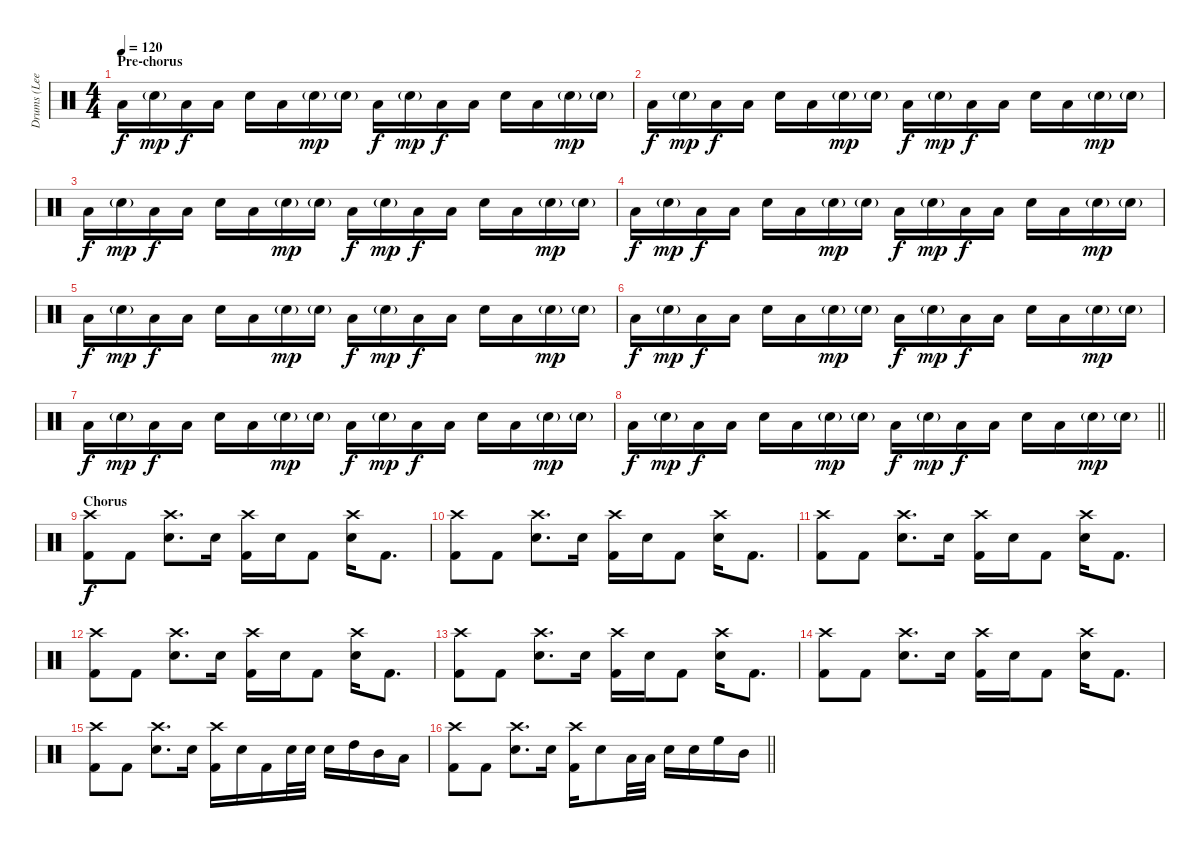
\track ("Drums (Lee)" "Drums (Lee") {instrument percussion}
\staff {score}
\articulation defaults
\ts (4 4)
\section ("" "Pre-chorus")
\tempo 120
\clef neutral
\ks c "Low Floor Tom (hit)".16{dy f} "Snare (hit) 2"{g}.16{dy mp} "Low Floor Tom (hit)".16{dy f} "Low Floor Tom (hit)".16 "Electric Snare (hit)".16 "Low Floor Tom (hit)".16 "Snare (hit) 2"{g}.16{dy mp} "Snare (hit) 2"{g}.16 "Low Floor Tom (hit)".16{dy f} "Snare (hit) 2"{g}.16{dy mp} "Low Floor Tom (hit)".16{dy f} "Low Floor Tom (hit)".16 "Electric Snare (hit)".16 "Low Floor Tom (hit)".16 "Snare (hit) 2"{g}.16{dy mp} "Snare (hit) 2"{g}.16
|
"Low Floor Tom (hit)".16{dy f} "Snare (hit) 2"{g}.16{dy mp} "Low Floor Tom (hit)".16{dy f} "Low Floor Tom (hit)".16 "Electric Snare (hit)".16 "Low Floor Tom (hit)".16 "Snare (hit) 2"{g}.16{dy mp} "Snare (hit) 2"{g}.16 "Low Floor Tom (hit)".16{dy f} "Snare (hit) 2"{g}.16{dy mp} "Low Floor Tom (hit)".16{dy f} "Low Floor Tom (hit)".16 "Electric Snare (hit)".16 "Low Floor Tom (hit)".16 "Snare (hit) 2"{g}.16{dy mp} "Snare (hit) 2"{g}.16 |
"Low Floor Tom (hit)".16{dy f} "Snare (hit) 2"{g}.16{dy mp} "Low Floor Tom (hit)".16{dy f} "Low Floor Tom (hit)".16 "Electric Snare (hit)".16 "Low Floor Tom (hit)".16 "Snare (hit) 2"{g}.16{dy mp} "Snare (hit) 2"{g}.16 "Low Floor Tom (hit)".16{dy f} "Snare (hit) 2"{g}.16{dy mp} "Low Floor Tom (hit)".16{dy f} "Low Floor Tom (hit)".16 "Electric Snare (hit)".16 "Low Floor Tom (hit)".16 "Snare (hit) 2"{g}.16{dy mp} "Snare (hit) 2"{g}.16 |
"Low Floor Tom (hit)".16{dy f} "Snare (hit) 2"{g}.16{dy mp} "Low Floor Tom (hit)".16{dy f} "Low Floor Tom (hit)".16 "Electric Snare (hit)".16 "Low Floor Tom (hit)".16 "Snare (hit) 2"{g}.16{dy mp} "Snare (hit) 2"{g}.16 "Low Floor Tom (hit)".16{dy f} "Snare (hit) 2"{g}.16{dy mp} "Low Floor Tom (hit)".16{dy f} "Low Floor Tom (hit)".16 "Electric Snare (hit)".16 "Low Floor Tom (hit)".16 "Snare (hit) 2"{g}.16{dy mp} "Snare (hit) 2"{g}.16 |
"Low Floor Tom (hit)".16{dy f} "Snare (hit) 2"{g}.16{dy mp} "Low Floor Tom (hit)".16{dy f} "Low Floor Tom (hit)".16 "Electric Snare (hit)".16 "Low Floor Tom (hit)".16 "Snare (hit) 2"{g}.16{dy mp} "Snare (hit) 2"{g}.16 "Low Floor Tom (hit)".16{dy f} "Snare (hit) 2"{g}.16{dy mp} "Low Floor Tom (hit)".16{dy f} "Low Floor Tom (hit)".16 "Electric Snare (hit)".16 "Low Floor Tom (hit)".16 "Snare (hit) 2"{g}.16{dy mp} "Snare (hit) 2"{g}.16 |
"Low Floor Tom (hit)".16{dy f} "Snare (hit) 2"{g}.16{dy mp} "Low Floor Tom (hit)".16{dy f} "Low Floor Tom (hit)".16 "Electric Snare (hit)".16 "Low Floor Tom (hit)".16 "Snare (hit) 2"{g}.16{dy mp} "Snare (hit) 2"{g}.16 "Low Floor Tom (hit)".16{dy f} "Snare (hit) 2"{g}.16{dy mp} "Low Floor Tom (hit)".16{dy f} "Low Floor Tom (hit)".16 "Electric Snare (hit)".16 "Low Floor Tom (hit)".16 "Snare (hit) 2"{g}.16{dy mp} "Snare (hit) 2"{g}.16 |
"Low Floor Tom (hit)".16{dy f} "Snare (hit) 2"{g}.16{dy mp} "Low Floor Tom (hit)".16{dy f} "Low Floor Tom (hit)".16 "Electric Snare (hit)".16 "Low Floor Tom (hit)".16 "Snare (hit) 2"{g}.16{dy mp} "Snare (hit) 2"{g}.16 "Low Floor Tom (hit)".16{dy f} "Snare (hit) 2"{g}.16{dy mp} "Low Floor Tom (hit)".16{dy f} "Low Floor Tom (hit)".16 "Electric Snare (hit)".16 "Low Floor Tom (hit)".16 "Snare (hit) 2"{g}.16{dy mp} "Snare (hit) 2"{g}.16 |
\barLineRight lightlight "Low Floor Tom (hit)".16{dy f} "Snare (hit) 2"{g}.16{dy mp} "Low Floor Tom (hit)".16{dy f} "Low Floor Tom (hit)".16 "Electric Snare (hit)".16 "Low Floor Tom (hit)".16 "Snare (hit) 2"{g}.16{dy mp} "Snare (hit) 2"{g}.16 "Low Floor Tom (hit)".16{dy f} "Snare (hit) 2"{g}.16{dy mp} "Low Floor Tom (hit)".16{dy f} "Low Floor Tom (hit)".16 "Electric Snare (hit)".16 "Low Floor Tom (hit)".16 "Snare (hit) 2"{g}.16{dy mp} "Snare (hit) 2"{g}.16
|
\section ("" "Chorus")
("Crash high (hit)" "Kick (hit) 2").8{dy f} "Kick (hit) 2".8 ("Crash high (hit)" "Electric Snare (hit)").8{d} "Electric Snare (hit)".16 ("Crash high (hit)" "Kick (hit) 2").16 "Electric Snare (hit)".16 "Kick (hit) 2".8 ("Crash high (hit)" "Electric Snare (hit)").16 "Kick (hit) 2".8{d} |
("Crash high (hit)" "Kick (hit) 2").8 "Kick (hit) 2".8 ("Crash high (hit)" "Electric Snare (hit)").8{d} "Electric Snare (hit)".16 ("Crash high (hit)" "Kick (hit) 2").16 "Electric Snare (hit)".16 "Kick (hit) 2".8 ("Crash high (hit)" "Electric Snare (hit)").16 "Kick (hit) 2".8{d} |
("Crash high (hit)" "Kick (hit) 2").8 "Kick (hit) 2".8 ("Crash high (hit)" "Electric Snare (hit)").8{d} "Electric Snare (hit)".16 ("Crash high (hit)" "Kick (hit) 2").16 "Electric Snare (hit)".16 "Kick (hit) 2".8 ("Crash high (hit)" "Electric Snare (hit)").16 "Kick (hit) 2".8{d} |
("Crash high (hit)" "Kick (hit) 2").8 "Kick (hit) 2".8 ("Crash high (hit)" "Electric Snare (hit)").8{d} "Electric Snare (hit)".16 ("Crash high (hit)" "Kick (hit) 2").16 "Electric Snare (hit)".16 "Kick (hit) 2".8 ("Crash high (hit)" "Electric Snare (hit)").16 "Kick (hit) 2".8{d} |
("Crash high (hit)" "Kick (hit) 2").8 "Kick (hit) 2".8 ("Crash high (hit)" "Electric Snare (hit)").8{d} "Electric Snare (hit)".16 ("Crash high (hit)" "Kick (hit) 2").16 "Electric Snare (hit)".16 "Kick (hit) 2".8 ("Crash high (hit)" "Electric Snare (hit)").16 "Kick (hit) 2".8{d} |
("Crash high (hit)" "Kick (hit) 2").8 "Kick (hit) 2".8 ("Crash high (hit)" "Electric Snare (hit)").8{d} "Electric Snare (hit)".16 ("Crash high (hit)" "Kick (hit) 2").16 "Electric Snare (hit)".16 "Kick (hit) 2".8 ("Crash high (hit)" "Electric Snare (hit)").16 "Kick (hit) 2".8{d} |
("Crash high (hit)" "Kick (hit) 2").8 "Kick (hit) 2".8 ("Crash high (hit)" "Electric Snare (hit)").8{d} "Electric Snare (hit)".16 ("Crash high (hit)" "Kick (hit) 2").16 "Electric Snare (hit)".16 "Kick (hit) 2".16 "Electric Snare (hit)".32 "Electric Snare (hit)".32 "Electric Snare (hit)".16 "High Tom (hit)".16 "Mid Tom (hit)".16 "Low Tom (hit)".16 |
\barLineRight lightlight
("Crash high (hit)" "Kick (hit) 2").8 "Kick (hit) 2".8 ("Crash high (hit)" "Electric Snare (hit)").8{d} "Electric Snare (hit)".16 ("Crash high (hit)" "Kick (hit) 2").16 "Electric Snare (hit)".8 "Low Tom (hit)".32 "Low Tom (hit)".32 "Electric Snare (hit)".16 "Electric Snare (hit)".16 "High Floor Tom (hit)".16 "Mid Tom (hit)".16
